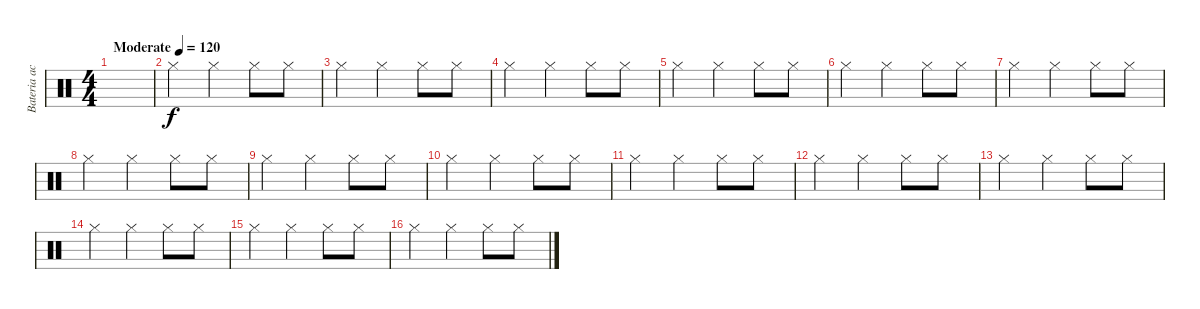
\track ("Bateria acompanhamento" "Bateria ac") {instrument percussion}
\staff {score}
\articulation defaults
\ts (4 4)
\tempo (120 "Moderate")
\clef neutral
\ks c
|
"Hi-Hat (closed)".4 "Hi-Hat (closed)".4 "Hi-Hat (closed)".8 "Hi-Hat (closed)".8 |
"Hi-Hat (closed)".4 "Hi-Hat (closed)".4 "Hi-Hat (closed)".8 "Hi-Hat (closed)".8 |
"Hi-Hat (closed)".4 "Hi-Hat (closed)".4 "Hi-Hat (closed)".8 "Hi-Hat (closed)".8 |
"Hi-Hat (closed)".4 "Hi-Hat (closed)".4 "Hi-Hat (closed)".8 "Hi-Hat (closed)".8 |
"Hi-Hat (closed)".4 "Hi-Hat (closed)".4 "Hi-Hat (closed)".8 "Hi-Hat (closed)".8 |
"Hi-Hat (closed)".4 "Hi-Hat (closed)".4 "Hi-Hat (closed)".8 "Hi-Hat (closed)".8 |
"Hi-Hat (closed)".4 "Hi-Hat (closed)".4 "Hi-Hat (closed)".8 "Hi-Hat (closed)".8 |
"Hi-Hat (closed)".4 "Hi-Hat (closed)".4 "Hi-Hat (closed)".8 "Hi-Hat (closed)".8 |
"Hi-Hat (closed)".4 "Hi-Hat (closed)".4 "Hi-Hat (closed)".8 "Hi-Hat (closed)".8 |
"Hi-Hat (closed)".4 "Hi-Hat (closed)".4 "Hi-Hat (closed)".8 "Hi-Hat (closed)".8 |
"Hi-Hat (closed)".4 "Hi-Hat (closed)".4 "Hi-Hat (closed)".8 "Hi-Hat (closed)".8 |
"Hi-Hat (closed)".4 "Hi-Hat (closed)".4 "Hi-Hat (closed)".8 "Hi-Hat (closed)".8 |
"Hi-Hat (closed)".4 "Hi-Hat (closed)".4 "Hi-Hat (closed)".8 "Hi-Hat (closed)".8 |
"Hi-Hat (closed)".4 "Hi-Hat (closed)".4 "Hi-Hat (closed)".8 "Hi-Hat (closed)".8 |
"Hi-Hat (closed)".4 "Hi-Hat (closed)".4 "Hi-Hat (closed)".8 "Hi-Hat (closed)".8
